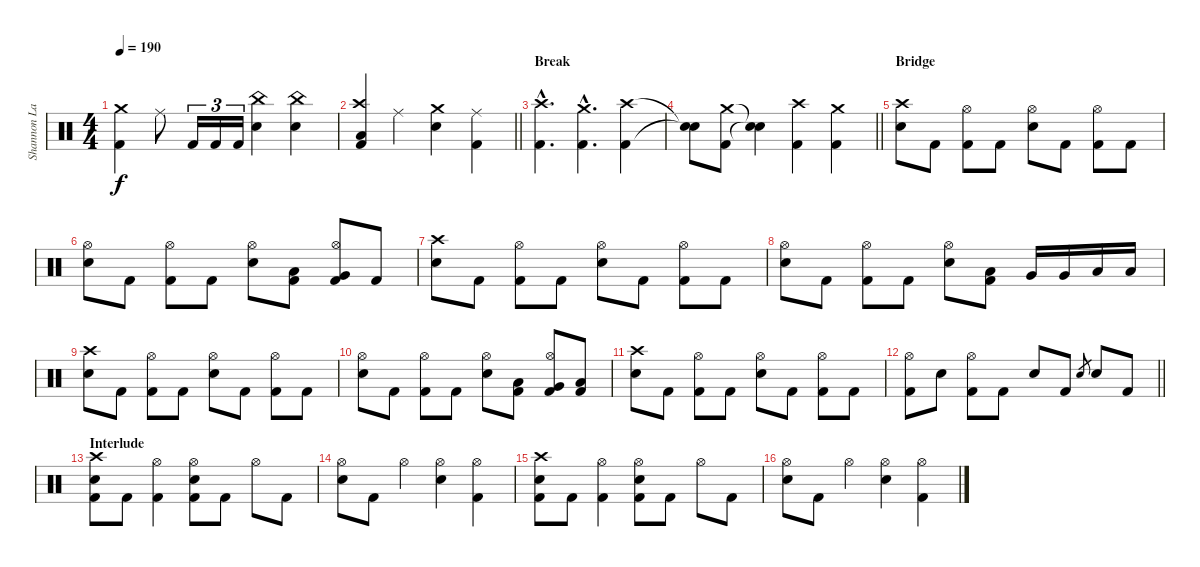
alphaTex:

\track ("Shannon Larkin" "Shannon La") {instrument percussion}
\staff {score}
\articulation defaults
\ts (4 4)
\tempo 190
\clef neutral
\ks c
("Crash medium (hit)" "Kick (hit) 2").4{dy f} "Ride (middle)".8 "Kick (hit) 2".16{tu (3 2)} "Kick (hit) 2".16{tu (3 2)} "Kick (hit) 2".16{tu (3 2)} ("China (hit)" "Snare (hit) 2").4 ("China (hit)" "Snare (hit) 2").4 |
\barLineRight lightlight
("Crash high (hit)" "Low Tom (hit)" "Kick (hit) 2").4 "Ride (middle)".4 ("Crash medium (hit)" "Snare (hit) 2").4 ("Ride (middle)" "Kick (hit) 2").4 |
\section ("" "Break")
("Crash high (hit)"{hac} "Kick (hit) 2"{hac}).4{d} ("Crash medium (hit)"{hac} "Kick (hit) 2"{hac}).4{d} ("Crash high (hit)" "Kick (hit) 2").4 |
\barLineRight lightlight
("Snare (hit)"{t} "Snare (hit)"{t}).8 ("Crash medium (hit)" "Kick (hit) 2").8 ("Snare (hit)"{t} "Snare (hit)"{t}).4 ("Crash high (hit)" "Kick (hit) 2").4 ("Crash medium (hit)" "Kick (hit) 2").4 |
\section ("" "Bridge")
("Crash high (hit)" "Snare (hit) 2").8 "Kick (hit) 2".8 ("Hi-Hat (open)" "Kick (hit) 2").8 "Kick (hit) 2".8 ("Hi-Hat (open)" "Snare (hit) 2").8 "Kick (hit) 2".8 ("Hi-Hat (open)" "Kick (hit) 2").8 "Kick (hit) 2".8 |
("Hi-Hat (open)" "Snare (hit) 2").8 "Kick (hit) 2".8 ("Hi-Hat (open)" "Kick (hit) 2").8 "Kick (hit) 2".8 ("Hi-Hat (open)" "Snare (hit) 2").8 ("Low Tom (hit)" "Kick (hit) 2").8 ("Hi-Hat (open)" "Very Low Tom (hit)" "Kick (hit) 2").8 "Kick (hit) 2".8 |
("Crash high (hit)" "Snare (hit) 2").8 "Kick (hit) 2".8 ("Hi-Hat (open)" "Kick (hit) 2").8 "Kick (hit) 2".8 ("Hi-Hat (open)" "Snare (hit) 2").8 "Kick (hit) 2".8 ("Hi-Hat (open)" "Kick (hit) 2").8 "Kick (hit) 2".8 |
("Hi-Hat (open)" "Snare (hit) 2").8 "Kick (hit) 2".8 ("Hi-Hat (open)" "Kick (hit) 2").8 "Kick (hit) 2".8 ("Hi-Hat (open)" "Snare (hit) 2").8 ("Low Tom (hit)" "Kick (hit) 2").8 "Very Low Tom (hit)".16 "Very Low Tom (hit)".16 "Low Floor Tom (hit)".16 "Low Floor Tom (hit)".16 |
("Crash high (hit)" "Snare (hit) 2").8 "Kick (hit) 2".8 ("Hi-Hat (open)" "Kick (hit) 2").8 "Kick (hit) 2".8 ("Hi-Hat (open)" "Snare (hit) 2").8 "Kick (hit) 2".8 ("Hi-Hat (open)" "Kick (hit) 2").8 "Kick (hit) 2".8 |
("Hi-Hat (open)" "Snare (hit) 2").8 "Kick (hit) 2".8 ("Hi-Hat (open)" "Kick (hit) 2").8 "Kick (hit) 2".8 ("Hi-Hat (open)" "Snare (hit) 2").8 ("Low Tom (hit)" "Kick (hit) 2").8 ("Hi-Hat (open)" "Very Low Tom (hit)" "Kick (hit) 2").8 ("Low Floor Tom (hit)" "Kick (hit) 2").8 |
("Crash high (hit)" "Snare (hit) 2").8 "Kick (hit) 2".8 ("Hi-Hat (open)" "Kick (hit) 2").8 "Kick (hit) 2".8 ("Hi-Hat (open)" "Snare (hit) 2").8 "Kick (hit) 2".8 ("Hi-Hat (open)" "Kick (hit) 2").8 "Kick (hit) 2".8 |
\barLineRight lightlight
("Hi-Hat (open)" "Kick (hit) 2").8 "Snare (hit) 2".8 ("Hi-Hat (open)" "Kick (hit) 2").8 "Kick (hit) 2".8 "Snare (hit) 2".8 "Kick (hit) 2".8 "Snare (hit) 2".8{gr} "Snare (hit) 2".8 "Kick (hit) 2".8 |
\section ("" "Interlude")
("Crash high (hit)" "Snare (hit) 2" "Kick (hit) 2").8 "Kick (hit) 2".8 ("Hi-Hat (open)" "Kick (hit) 2").4 ("Hi-Hat (open)" "Snare (hit) 2" "Kick (hit) 2").8 "Kick (hit) 2".8 "Hi-Hat (open)".8 "Kick (hit) 2".8 |
("Hi-Hat (open)" "Snare (hit) 2").8 "Kick (hit) 2".8 "Hi-Hat (open)".4 ("Hi-Hat (open)" "Snare (hit) 2").4 ("Hi-Hat (open)" "Kick (hit) 2").4 |
("Crash high (hit)" "Snare (hit) 2" "Kick (hit) 2").8 "Kick (hit) 2".8 ("Hi-Hat (open)" "Kick (hit) 2").4 ("Hi-Hat (open)" "Snare (hit) 2" "Kick (hit) 2").8 "Kick (hit) 2".8 "Hi-Hat (open)".8 "Kick (hit) 2".8 |
("Hi-Hat (open)" "Snare (hit) 2").8 "Kick (hit) 2".8 "Hi-Hat (open)".4 ("Hi-Hat (open)" "Snare (hit) 2").4 ("Hi-Hat (open)" "Kick (hit) 2").4
